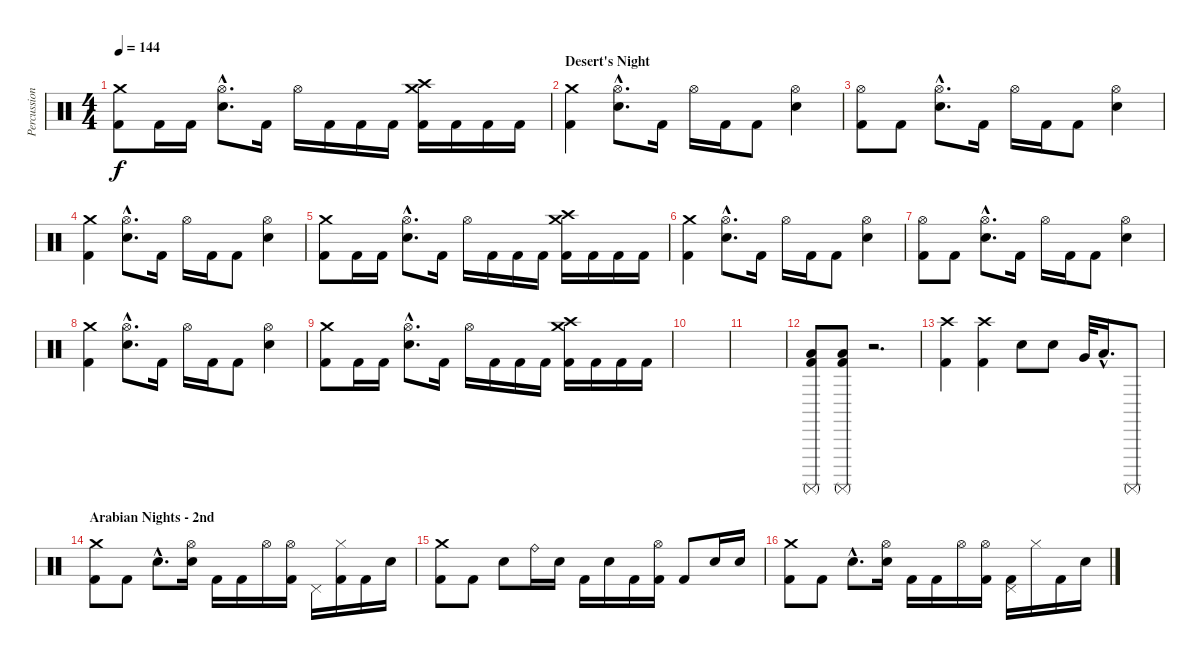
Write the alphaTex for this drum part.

\track ("Percussion" "Percussion") {instrument percussion}
\staff {score}
\articulation defaults
\ts (4 4)
\tempo 144
\clef neutral
\ks c
("Crash medium (hit)" "Kick (hit) 2").8{dy f} "Kick (hit) 2".16 "Kick (hit) 2".16 ("Hi-Hat (open)"{hac} "Electric Snare (hit)"{hac}).8{d} "Kick (hit) 2".16 "Hi-Hat (open)".16 "Kick (hit) 2".16 "Kick (hit) 2".16 "Kick (hit) 2".16 ("Crash high (hit)" "Crash medium (hit)" "Kick (hit) 2").16 "Kick (hit) 2".16 "Kick (hit) 2".16 "Kick (hit) 2".16 |
\section ("" "Desert's Night")
("Crash medium (hit)" "Kick (hit) 2").4 ("Hi-Hat (open)"{hac} "Electric Snare (hit)"{hac}).8{d} "Kick (hit) 2".16 "Hi-Hat (open)".16 "Kick (hit) 2".16 "Kick (hit) 2".8 ("Hi-Hat (open)" "Electric Snare (hit)").4 |
("Hi-Hat (open)" "Kick (hit) 2").8 "Kick (hit) 2".8 ("Hi-Hat (open)"{hac} "Electric Snare (hit)"{hac}).8{d} "Kick (hit) 2".16 "Hi-Hat (open)".16 "Kick (hit) 2".16 "Kick (hit) 2".8 ("Hi-Hat (open)" "Electric Snare (hit)").4 |
("Crash medium (hit)" "Kick (hit) 2").4 ("Hi-Hat (open)"{hac} "Electric Snare (hit)"{hac}).8{d} "Kick (hit) 2".16 "Hi-Hat (open)".16 "Kick (hit) 2".16 "Kick (hit) 2".8 ("Hi-Hat (open)" "Electric Snare (hit)").4 |
("Crash medium (hit)" "Kick (hit) 2").8 "Kick (hit) 2".16 "Kick (hit) 2".16 ("Hi-Hat (open)"{hac} "Electric Snare (hit)"{hac}).8{d} "Kick (hit) 2".16 "Hi-Hat (open)".16 "Kick (hit) 2".16 "Kick (hit) 2".16 "Kick (hit) 2".16 ("Crash high (hit)" "Crash medium (hit)" "Kick (hit) 2").16 "Kick (hit) 2".16 "Kick (hit) 2".16 "Kick (hit) 2".16 |
("Crash medium (hit)" "Kick (hit) 2").4 ("Hi-Hat (open)"{hac} "Electric Snare (hit)"{hac}).8{d} "Kick (hit) 2".16 "Hi-Hat (open)".16 "Kick (hit) 2".16 "Kick (hit) 2".8 ("Hi-Hat (open)" "Electric Snare (hit)").4 |
("Hi-Hat (open)" "Kick (hit) 2").8 "Kick (hit) 2".8 ("Hi-Hat (open)"{hac} "Electric Snare (hit)"{hac}).8{d} "Kick (hit) 2".16 "Hi-Hat (open)".16 "Kick (hit) 2".16 "Kick (hit) 2".8 ("Hi-Hat (open)" "Electric Snare (hit)").4 |
("Crash medium (hit)" "Kick (hit) 2").4 ("Hi-Hat (open)"{hac} "Electric Snare (hit)"{hac}).8{d} "Kick (hit) 2".16 "Hi-Hat (open)".16 "Kick (hit) 2".16 "Kick (hit) 2".8 ("Hi-Hat (open)" "Electric Snare (hit)").4 |
("Crash medium (hit)" "Kick (hit) 2").8 "Kick (hit) 2".16 "Kick (hit) 2".16 ("Hi-Hat (open)"{hac} "Electric Snare (hit)"{hac}).8{d} "Kick (hit) 2".16 "Hi-Hat (open)".16 "Kick (hit) 2".16 "Kick (hit) 2".16 "Kick (hit) 2".16 ("Crash high (hit)" "Crash medium (hit)" "Kick (hit) 2").16 "Kick (hit) 2".16 "Kick (hit) 2".16 "Kick (hit) 2".16 |
|
|
("Surdo (mute)" "Low Tom (hit)" "Kick (hit) 2").8 ("Surdo (mute)" "Low Tom (hit)" "Kick (hit) 2").8 r.2{d} |
("Crash high (hit)" "Kick (hit) 2").4 ("Crash high (hit)" "Kick (hit) 2").4 "Electric Snare (hit)".8 "Electric Snare (hit)".8 "Very Low Tom (hit)".32 "Low Tom (hit)"{hac}.16{d} "Surdo (mute)".8 |
\section ("" "Arabian Nights - 2nd")
("Crash medium (hit)" "Kick (hit) 2").8 "Kick (hit) 2".8 "Electric Snare (hit)"{hac}.8{d} ("Hi-Hat (open)" "Electric Snare (hit)").16 "Kick (hit) 2".16 "Kick (hit) 2".16 "Hi-Hat (open)".16 ("Hi-Hat (open)" "Kick (hit) 2").16 "Pedal Hi-Hat (hit)".16 ("Hi-Hat (closed)" "Kick (hit) 2").16 "Kick (hit) 2".16 "Electric Snare (hit)".16 |
("Crash medium (hit)" "Kick (hit) 2").8 "Kick (hit) 2".8 "Electric Snare (hit)".8 "Ride (bell)".16 "Electric Snare (hit)".16 "Kick (hit) 2".16 "Electric Snare (hit)".16 "Kick (hit) 2".16 ("Hi-Hat (open)" "Kick (hit) 2").16 "Kick (hit) 2".8 "Electric Snare (hit)".16 "Electric Snare (hit)".16 |
("Crash medium (hit)" "Kick (hit) 2").8 "Kick (hit) 2".8 "Electric Snare (hit)"{hac}.8{d} ("Hi-Hat (open)" "Electric Snare (hit)").16 "Kick (hit) 2".16 "Kick (hit) 2".16 "Hi-Hat (open)".16 ("Hi-Hat (open)" "Kick (hit) 2").16 ("Pedal Hi-Hat (hit)" "Kick (hit) 2").16 "Hi-Hat (closed)".16 "Kick (hit) 2".16 "Electric Snare (hit)".16
